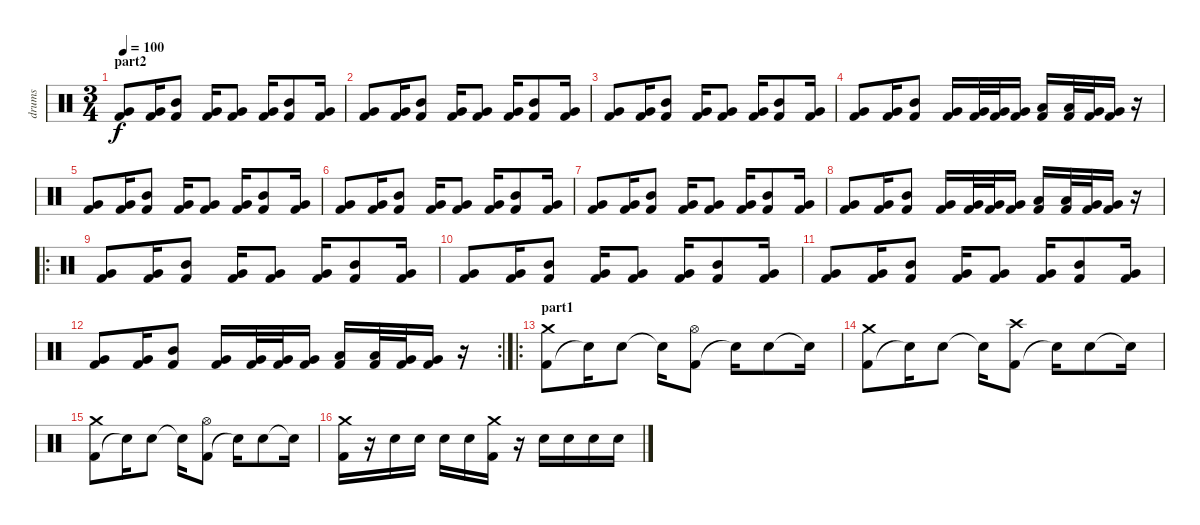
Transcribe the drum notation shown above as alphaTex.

\track ("drums" "drums") {instrument percussion}
\staff {score}
\articulation defaults
\ts (3 4)
\section ("" "part2")
\tempo 100
\clef neutral
\ks c
("Kick (hit) 2" "Very Low Tom (hit)").8{dy f} ("Kick (hit) 2" "Very Low Tom (hit)").16 ("Kick (hit) 2" "Mid Tom (hit)").8 ("Kick (hit) 2" "Very Low Tom (hit)").16 ("Kick (hit) 2" "Very Low Tom (hit)").8 ("Kick (hit) 2" "Very Low Tom (hit)").16 ("Kick (hit) 2" "Mid Tom (hit)").8 ("Kick (hit) 2" "Very Low Tom (hit)").16 |
("Kick (hit) 2" "Very Low Tom (hit)").8 ("Kick (hit) 2" "Very Low Tom (hit)").16 ("Kick (hit) 2" "Mid Tom (hit)").8 ("Kick (hit) 2" "Very Low Tom (hit)").16 ("Kick (hit) 2" "Very Low Tom (hit)").8 ("Kick (hit) 2" "Very Low Tom (hit)").16 ("Kick (hit) 2" "Mid Tom (hit)").8 ("Kick (hit) 2" "Very Low Tom (hit)").16 |
("Kick (hit) 2" "Very Low Tom (hit)").8 ("Kick (hit) 2" "Very Low Tom (hit)").16 ("Kick (hit) 2" "Mid Tom (hit)").8 ("Kick (hit) 2" "Very Low Tom (hit)").16 ("Kick (hit) 2" "Very Low Tom (hit)").8 ("Kick (hit) 2" "Very Low Tom (hit)").16 ("Kick (hit) 2" "Mid Tom (hit)").8 ("Kick (hit) 2" "Very Low Tom (hit)").16 |
("Kick (hit) 2" "Very Low Tom (hit)").8 ("Kick (hit) 2" "Very Low Tom (hit)").16 ("Kick (hit) 2" "Mid Tom (hit)").8 ("Kick (hit) 2" "Very Low Tom (hit)").16 ("Kick (hit) 2" "Very Low Tom (hit)").32 ("Kick (hit) 2" "Very Low Tom (hit)").32 ("Kick (hit) 2" "Very Low Tom (hit)").16 ("Kick (hit) 2" "Low Tom (hit)").16 ("Kick (hit) 2" "Low Tom (hit)").32 ("Kick (hit) 2" "Very Low Tom (hit)").32 ("Kick (hit) 2" "Very Low Tom (hit)").16 r.16 |
("Kick (hit) 2" "Very Low Tom (hit)").8 ("Kick (hit) 2" "Very Low Tom (hit)").16 ("Kick (hit) 2" "Mid Tom (hit)").8 ("Kick (hit) 2" "Very Low Tom (hit)").16 ("Kick (hit) 2" "Very Low Tom (hit)").8 ("Kick (hit) 2" "Very Low Tom (hit)").16 ("Kick (hit) 2" "Mid Tom (hit)").8 ("Kick (hit) 2" "Very Low Tom (hit)").16 |
("Kick (hit) 2" "Very Low Tom (hit)").8 ("Kick (hit) 2" "Very Low Tom (hit)").16 ("Kick (hit) 2" "Mid Tom (hit)").8 ("Kick (hit) 2" "Very Low Tom (hit)").16 ("Kick (hit) 2" "Very Low Tom (hit)").8 ("Kick (hit) 2" "Very Low Tom (hit)").16 ("Kick (hit) 2" "Mid Tom (hit)").8 ("Kick (hit) 2" "Very Low Tom (hit)").16 |
("Kick (hit) 2" "Very Low Tom (hit)").8 ("Kick (hit) 2" "Very Low Tom (hit)").16 ("Kick (hit) 2" "Mid Tom (hit)").8 ("Kick (hit) 2" "Very Low Tom (hit)").16 ("Kick (hit) 2" "Very Low Tom (hit)").8 ("Kick (hit) 2" "Very Low Tom (hit)").16 ("Kick (hit) 2" "Mid Tom (hit)").8 ("Kick (hit) 2" "Very Low Tom (hit)").16 |
("Kick (hit) 2" "Very Low Tom (hit)").8 ("Kick (hit) 2" "Very Low Tom (hit)").16 ("Kick (hit) 2" "Mid Tom (hit)").8 ("Kick (hit) 2" "Very Low Tom (hit)").16 ("Kick (hit) 2" "Very Low Tom (hit)").32 ("Kick (hit) 2" "Very Low Tom (hit)").32 ("Kick (hit) 2" "Very Low Tom (hit)").16 ("Kick (hit) 2" "Low Tom (hit)").16 ("Kick (hit) 2" "Low Tom (hit)").32 ("Kick (hit) 2" "Very Low Tom (hit)").32 ("Kick (hit) 2" "Very Low Tom (hit)").16 r.16 |
\ro
("Kick (hit) 2" "Very Low Tom (hit)").8 ("Kick (hit) 2" "Very Low Tom (hit)").16 ("Kick (hit) 2" "Mid Tom (hit)").8 ("Kick (hit) 2" "Very Low Tom (hit)").16 ("Kick (hit) 2" "Very Low Tom (hit)").8 ("Kick (hit) 2" "Very Low Tom (hit)").16 ("Kick (hit) 2" "Mid Tom (hit)").8 ("Kick (hit) 2" "Very Low Tom (hit)").16 |
("Kick (hit) 2" "Very Low Tom (hit)").8 ("Kick (hit) 2" "Very Low Tom (hit)").16 ("Kick (hit) 2" "Mid Tom (hit)").8 ("Kick (hit) 2" "Very Low Tom (hit)").16 ("Kick (hit) 2" "Very Low Tom (hit)").8 ("Kick (hit) 2" "Very Low Tom (hit)").16 ("Kick (hit) 2" "Mid Tom (hit)").8 ("Kick (hit) 2" "Very Low Tom (hit)").16 |
("Kick (hit) 2" "Very Low Tom (hit)").8 ("Kick (hit) 2" "Very Low Tom (hit)").16 ("Kick (hit) 2" "Mid Tom (hit)").8 ("Kick (hit) 2" "Very Low Tom (hit)").16 ("Kick (hit) 2" "Very Low Tom (hit)").8 ("Kick (hit) 2" "Very Low Tom (hit)").16 ("Kick (hit) 2" "Mid Tom (hit)").8 ("Kick (hit) 2" "Very Low Tom (hit)").16 |
\rc 2
("Kick (hit) 2" "Very Low Tom (hit)").8 ("Kick (hit) 2" "Very Low Tom (hit)").16 ("Kick (hit) 2" "Mid Tom (hit)").8 ("Kick (hit) 2" "Very Low Tom (hit)").16 ("Kick (hit) 2" "Very Low Tom (hit)").32 ("Kick (hit) 2" "Very Low Tom (hit)").32 ("Kick (hit) 2" "Very Low Tom (hit)").16 ("Kick (hit) 2" "Low Tom (hit)").16 ("Kick (hit) 2" "Low Tom (hit)").32 ("Kick (hit) 2" "Very Low Tom (hit)").32 ("Kick (hit) 2" "Very Low Tom (hit)").16 r.16 |
\ro
\section ("" "part1")
("Kick (hit) 2" "Crash medium (hit)").8 "Snare (hit)"{t}.16 "Electric Snare (hit)".8 "Snare (hit)"{t}.16 ("Kick (hit) 2" "Hi-Hat (open)").8 "Snare (hit)"{t}.16 "Electric Snare (hit)".8 "Snare (hit)"{t}.16 |
("Kick (hit) 2" "Crash medium (hit)").8 "Snare (hit)"{t}.16 "Electric Snare (hit)".8 "Snare (hit)"{t}.16 ("Kick (hit) 2" "Crash high (hit)").8 "Snare (hit)"{t}.16 "Electric Snare (hit)".8 "Snare (hit)"{t}.16 |
("Kick (hit) 2" "Crash medium (hit)").8 "Snare (hit)"{t}.16 "Electric Snare (hit)".8 "Snare (hit)"{t}.16 ("Kick (hit) 2" "Hi-Hat (open)").8 "Snare (hit)"{t}.16 "Electric Snare (hit)".8 "Snare (hit)"{t}.16 |
("Kick (hit) 2" "Crash medium (hit)").16 r.16 "Electric Snare (hit)".16 "Electric Snare (hit)".16 "Electric Snare (hit)".16 "Electric Snare (hit)".16 ("Kick (hit) 2" "Crash medium (hit)").16 r.16 "Electric Snare (hit)".16 "Electric Snare (hit)".16 "Electric Snare (hit)".16 "Electric Snare (hit)".16
